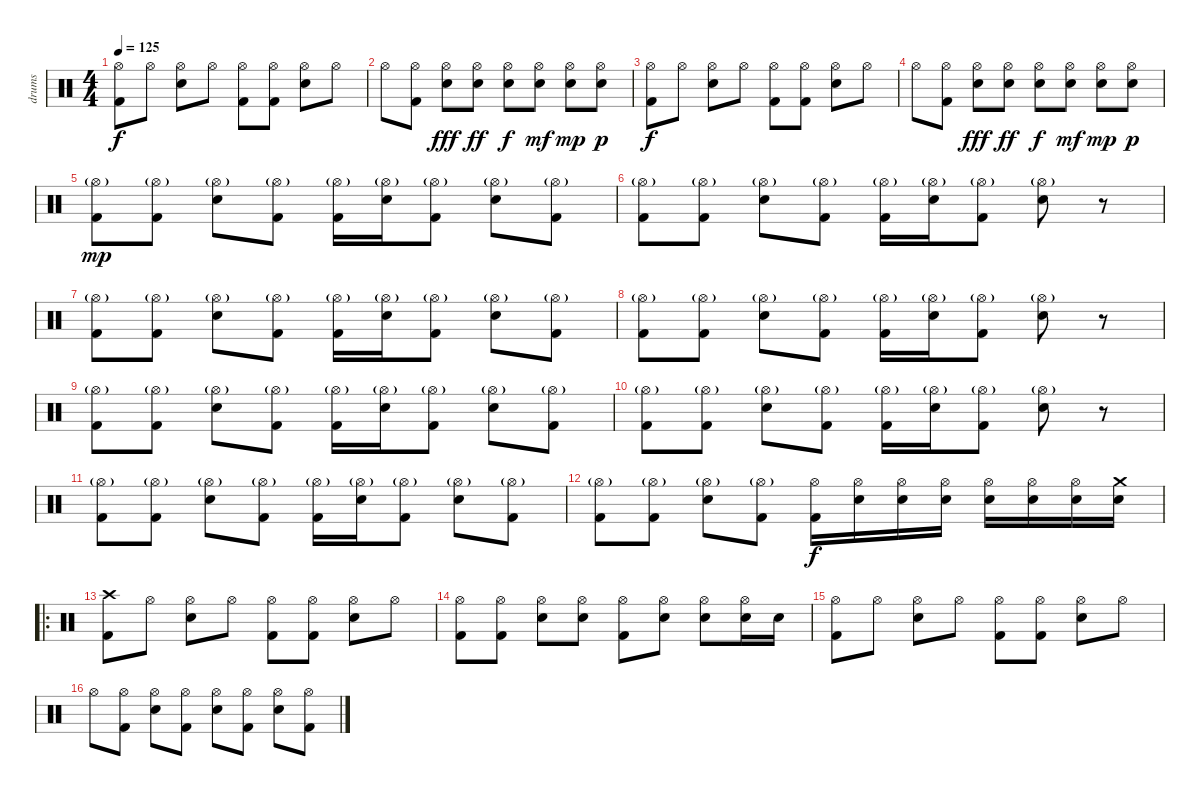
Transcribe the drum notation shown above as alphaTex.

\track ("drums" "drums") {instrument percussion}
\staff {score}
\articulation defaults
\ts (4 4)
\tempo 125
\clef neutral
\ks c
("Hi-Hat (open)" "Kick (hit) 2").8{dy f} "Hi-Hat (open)".8 ("Hi-Hat (open)" "Electric Snare (hit)").8 "Hi-Hat (open)".8 ("Hi-Hat (open)" "Kick (hit) 2").8 ("Hi-Hat (open)" "Kick (hit) 2").8 ("Hi-Hat (open)" "Electric Snare (hit)").8 "Hi-Hat (open)".8 |
"Hi-Hat (open)".8 ("Hi-Hat (open)" "Kick (hit) 2").8 ("Hi-Hat (open)" "Electric Snare (hit)").8{dy fff} ("Hi-Hat (open)" "Electric Snare (hit)").8{dy ff} ("Hi-Hat (open)" "Electric Snare (hit)").8{dy f} ("Hi-Hat (open)" "Electric Snare (hit)").8{dy mf} ("Hi-Hat (open)" "Electric Snare (hit)").8{dy mp} ("Hi-Hat (open)" "Electric Snare (hit)").8{dy p} |
("Hi-Hat (open)" "Kick (hit) 2").8{dy f} "Hi-Hat (open)".8 ("Hi-Hat (open)" "Electric Snare (hit)").8 "Hi-Hat (open)".8 ("Hi-Hat (open)" "Kick (hit) 2").8 ("Hi-Hat (open)" "Kick (hit) 2").8 ("Hi-Hat (open)" "Electric Snare (hit)").8 "Hi-Hat (open)".8 |
"Hi-Hat (open)".8 ("Hi-Hat (open)" "Kick (hit) 2").8 ("Hi-Hat (open)" "Electric Snare (hit)").8{dy fff} ("Hi-Hat (open)" "Electric Snare (hit)").8{dy ff} ("Hi-Hat (open)" "Electric Snare (hit)").8{dy f} ("Hi-Hat (open)" "Electric Snare (hit)").8{dy mf} ("Hi-Hat (open)" "Electric Snare (hit)").8{dy mp} ("Hi-Hat (open)" "Electric Snare (hit)").8{dy p} |
("Hi-Hat (open)"{g} "Kick (hit) 2").8{dy mp} ("Hi-Hat (open)"{g} "Kick (hit) 2").8 ("Hi-Hat (open)"{g} "Electric Snare (hit)").8 ("Hi-Hat (open)"{g} "Kick (hit) 2").8 ("Hi-Hat (open)"{g} "Kick (hit) 2").16 ("Hi-Hat (open)"{g} "Electric Snare (hit)").16 ("Hi-Hat (open)"{g} "Kick (hit) 2").8 ("Hi-Hat (open)"{g} "Electric Snare (hit)").8 ("Hi-Hat (open)"{g} "Kick (hit) 2").8 |
("Hi-Hat (open)"{g} "Kick (hit) 2").8 ("Hi-Hat (open)"{g} "Kick (hit) 2").8 ("Hi-Hat (open)"{g} "Electric Snare (hit)").8 ("Hi-Hat (open)"{g} "Kick (hit) 2").8 ("Hi-Hat (open)"{g} "Kick (hit) 2").16 ("Hi-Hat (open)"{g} "Electric Snare (hit)").16 ("Hi-Hat (open)"{g} "Kick (hit) 2").8 ("Hi-Hat (open)"{g} "Electric Snare (hit)").8 r.8 |
("Hi-Hat (open)"{g} "Kick (hit) 2").8 ("Hi-Hat (open)"{g} "Kick (hit) 2").8 ("Hi-Hat (open)"{g} "Electric Snare (hit)").8 ("Hi-Hat (open)"{g} "Kick (hit) 2").8 ("Hi-Hat (open)"{g} "Kick (hit) 2").16 ("Hi-Hat (open)"{g} "Electric Snare (hit)").16 ("Hi-Hat (open)"{g} "Kick (hit) 2").8 ("Hi-Hat (open)"{g} "Electric Snare (hit)").8 ("Hi-Hat (open)"{g} "Kick (hit) 2").8 |
("Hi-Hat (open)"{g} "Kick (hit) 2").8 ("Hi-Hat (open)"{g} "Kick (hit) 2").8 ("Hi-Hat (open)"{g} "Electric Snare (hit)").8 ("Hi-Hat (open)"{g} "Kick (hit) 2").8 ("Hi-Hat (open)"{g} "Kick (hit) 2").16 ("Hi-Hat (open)"{g} "Electric Snare (hit)").16 ("Hi-Hat (open)"{g} "Kick (hit) 2").8 ("Hi-Hat (open)"{g} "Electric Snare (hit)").8 r.8 |
("Hi-Hat (open)"{g} "Kick (hit) 2").8 ("Hi-Hat (open)"{g} "Kick (hit) 2").8 ("Hi-Hat (open)"{g} "Electric Snare (hit)").8 ("Hi-Hat (open)"{g} "Kick (hit) 2").8 ("Hi-Hat (open)"{g} "Kick (hit) 2").16 ("Hi-Hat (open)"{g} "Electric Snare (hit)").16 ("Hi-Hat (open)"{g} "Kick (hit) 2").8 ("Hi-Hat (open)"{g} "Electric Snare (hit)").8 ("Hi-Hat (open)"{g} "Kick (hit) 2").8 |
("Hi-Hat (open)"{g} "Kick (hit) 2").8 ("Hi-Hat (open)"{g} "Kick (hit) 2").8 ("Hi-Hat (open)"{g} "Electric Snare (hit)").8 ("Hi-Hat (open)"{g} "Kick (hit) 2").8 ("Hi-Hat (open)"{g} "Kick (hit) 2").16 ("Hi-Hat (open)"{g} "Electric Snare (hit)").16 ("Hi-Hat (open)"{g} "Kick (hit) 2").8 ("Hi-Hat (open)"{g} "Electric Snare (hit)").8 r.8 |
("Hi-Hat (open)"{g} "Kick (hit) 2").8 ("Hi-Hat (open)"{g} "Kick (hit) 2").8 ("Hi-Hat (open)"{g} "Electric Snare (hit)").8 ("Hi-Hat (open)"{g} "Kick (hit) 2").8 ("Hi-Hat (open)"{g} "Kick (hit) 2").16 ("Hi-Hat (open)"{g} "Electric Snare (hit)").16 ("Hi-Hat (open)"{g} "Kick (hit) 2").8 ("Hi-Hat (open)"{g} "Electric Snare (hit)").8 ("Hi-Hat (open)"{g} "Kick (hit) 2").8 |
("Hi-Hat (open)"{g} "Kick (hit) 2").8 ("Hi-Hat (open)"{g} "Kick (hit) 2").8 ("Hi-Hat (open)"{g} "Electric Snare (hit)").8 ("Hi-Hat (open)"{g} "Kick (hit) 2").8 ("Hi-Hat (open)" "Kick (hit) 2").16{dy f} ("Hi-Hat (open)" "Electric Snare (hit)").16 ("Hi-Hat (open)" "Electric Snare (hit)").16 ("Hi-Hat (open)" "Electric Snare (hit)").16 ("Hi-Hat (open)" "Electric Snare (hit)").16 ("Hi-Hat (open)" "Electric Snare (hit)").16 ("Hi-Hat (open)" "Electric Snare (hit)").16 ("Crash medium (hit)" "Electric Snare (hit)").16 |
\ro
("Crash high (hit)" "Kick (hit) 2").8 "Hi-Hat (open)".8 ("Hi-Hat (open)" "Electric Snare (hit)").8 "Hi-Hat (open)".8 ("Hi-Hat (open)" "Kick (hit) 2").8 ("Hi-Hat (open)" "Kick (hit) 2").8 ("Hi-Hat (open)" "Electric Snare (hit)").8 "Hi-Hat (open)".8 |
("Hi-Hat (open)" "Kick (hit) 2").8 ("Hi-Hat (open)" "Kick (hit) 2").8 ("Hi-Hat (open)" "Electric Snare (hit)").8 ("Hi-Hat (open)" "Electric Snare (hit)").8 ("Hi-Hat (open)" "Kick (hit) 2").8 ("Hi-Hat (open)" "Electric Snare (hit)").8 ("Hi-Hat (open)" "Electric Snare (hit)").8 ("Hi-Hat (open)" "Electric Snare (hit)").16 "Electric Snare (hit)".16 |
("Hi-Hat (open)" "Kick (hit) 2").8 "Hi-Hat (open)".8 ("Hi-Hat (open)" "Electric Snare (hit)").8 "Hi-Hat (open)".8 ("Hi-Hat (open)" "Kick (hit) 2").8 ("Hi-Hat (open)" "Kick (hit) 2").8 ("Hi-Hat (open)" "Electric Snare (hit)").8 "Hi-Hat (open)".8 |
"Hi-Hat (open)".8 ("Hi-Hat (open)" "Kick (hit) 2").8 ("Hi-Hat (open)" "Electric Snare (hit)").8 ("Hi-Hat (open)" "Kick (hit) 2").8 ("Hi-Hat (open)" "Electric Snare (hit)").8 ("Hi-Hat (open)" "Kick (hit) 2").8 ("Hi-Hat (open)" "Electric Snare (hit)").8 ("Hi-Hat (open)" "Kick (hit) 2").8
